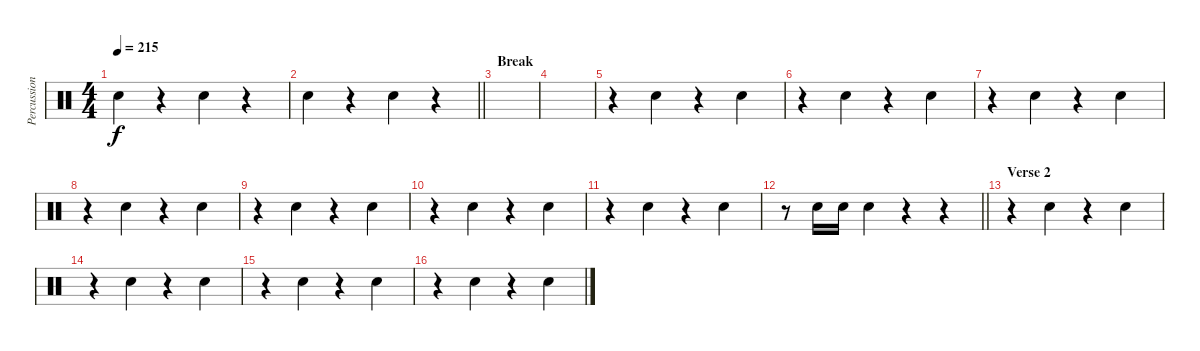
\track ("Percussion" "Percussion") {instrument percussion}
\staff {score}
\articulation defaults
\ts (4 4)
\tempo 215
\clef neutral
\ks c "Snare (hit) 2".4{dy f}
r.4 "Snare (hit) 2".4 r.4 |
\barLineRight lightlight "Snare (hit) 2".4
r.4 "Snare (hit) 2".4 r.4 |
\section ("" "Break")
|
|
r.4 "Snare (hit) 2".4 r.4 "Snare (hit) 2".4 |
r.4 "Snare (hit) 2".4 r.4 "Snare (hit) 2".4 |
r.4 "Snare (hit) 2".4 r.4 "Snare (hit) 2".4 |
r.4 "Snare (hit) 2".4 r.4 "Snare (hit) 2".4 |
r.4 "Snare (hit) 2".4 r.4 "Snare (hit) 2".4 |
r.4 "Snare (hit) 2".4 r.4 "Snare (hit) 2".4 |
r.4 "Snare (hit) 2".4 r.4 "Snare (hit) 2".4 |
\barLineRight lightlight
r.8 "Snare (hit) 2".16 "Snare (hit) 2".16 "Snare (hit) 2".4 r.4 r.4 |
\section ("" "Verse 2")
r.4 "Snare (hit) 2".4 r.4 "Snare (hit) 2".4 |
r.4 "Snare (hit) 2".4 r.4 "Snare (hit) 2".4 |
r.4 "Snare (hit) 2".4 r.4 "Snare (hit) 2".4 |
r.4 "Snare (hit) 2".4 r.4 "Snare (hit) 2".4
